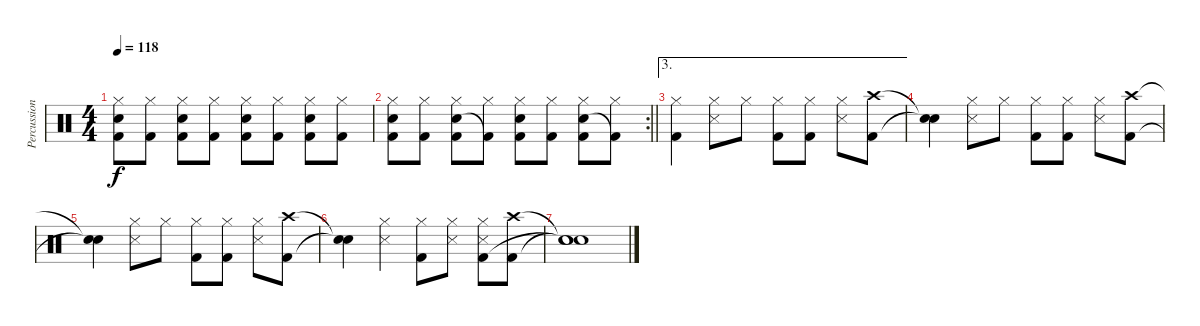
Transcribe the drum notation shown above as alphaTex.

\track ("Percussion" "Percussion") {instrument percussion}
\staff {score}
\articulation defaults
\ts (4 4)
\tempo 118
\clef neutral
\ks c
("Hi-Hat (closed)" "Hand Clap (hit)" "Kick (hit) 2").8{dy f} ("Hi-Hat (closed)" "Kick (hit) 2").8 ("Hi-Hat (closed)" "Hand Clap (hit)" "Kick (hit) 2").8 ("Hi-Hat (closed)" "Kick (hit) 2").8 ("Hi-Hat (closed)" "Hand Clap (hit)" "Kick (hit) 2").8 ("Hi-Hat (closed)" "Kick (hit) 2").8 ("Hi-Hat (closed)" "Hand Clap (hit)" "Kick (hit) 2").8 ("Hi-Hat (closed)" "Kick (hit) 2").8 |
\rc 2
\barLineRight lightlight
("Hi-Hat (closed)" "Hand Clap (hit)" "Kick (hit) 2").8 ("Hi-Hat (closed)" "Kick (hit) 2").8 ("Hi-Hat (closed)" "Hand Clap (hit)" "Kick (hit) 2").8 ("Hi-Hat (closed)" "Kick (hit) 2"{t}).8 ("Hi-Hat (closed)" "Hand Clap (hit)" "Kick (hit) 2").8 ("Hi-Hat (closed)" "Kick (hit) 2").8 ("Hi-Hat (closed)" "Hand Clap (hit)" "Kick (hit) 2").8 ("Hi-Hat (closed)" "Kick (hit) 2"{t}).8 |
\ae 3
("Hi-Hat (closed)" "Kick (hit) 2").4 ("Hi-Hat (closed)" "Snare (side stick) 3").8 "Hi-Hat (closed)".8 ("Hi-Hat (closed)" "Kick (hit) 2").8 ("Hi-Hat (closed)" "Kick (hit) 2").8 ("Hi-Hat (closed)" "Snare (side stick) 3").8 ("Crash high (hit)" "Kick (hit) 2").8 |
("Snare (hit)"{t} "Snare (hit)"{t}).4 ("Hi-Hat (closed)" "Snare (side stick) 3").8 "Hi-Hat (closed)".8 ("Hi-Hat (closed)" "Kick (hit) 2").8 ("Hi-Hat (closed)" "Kick (hit) 2").8 ("Hi-Hat (closed)" "Snare (side stick) 3").8 ("Crash high (hit)" "Kick (hit) 2").8 |
("Snare (hit)"{t} "Snare (hit)"{t}).4 ("Hi-Hat (closed)" "Snare (side stick) 3").8 "Hi-Hat (closed)".8 ("Hi-Hat (closed)" "Kick (hit) 2").8 ("Hi-Hat (closed)" "Kick (hit) 2").8 ("Hi-Hat (closed)" "Snare (side stick) 3").8 ("Crash high (hit)" "Kick (hit) 2").8 |
("Snare (hit)"{t} "Snare (hit)"{t}).4 ("Hi-Hat (closed)" "Snare (side stick) 3").4 ("Hi-Hat (closed)" "Kick (hit) 2").8 ("Hi-Hat (closed)" "Snare (side stick) 3").8 ("Hi-Hat (closed)" "Snare (side stick) 3" "Kick (hit) 2").8 ("Crash high (hit)" "Kick (hit) 2").8 |
("Snare (hit)"{t} "Snare (hit)"{t} "Snare (hit)"{t}).1
